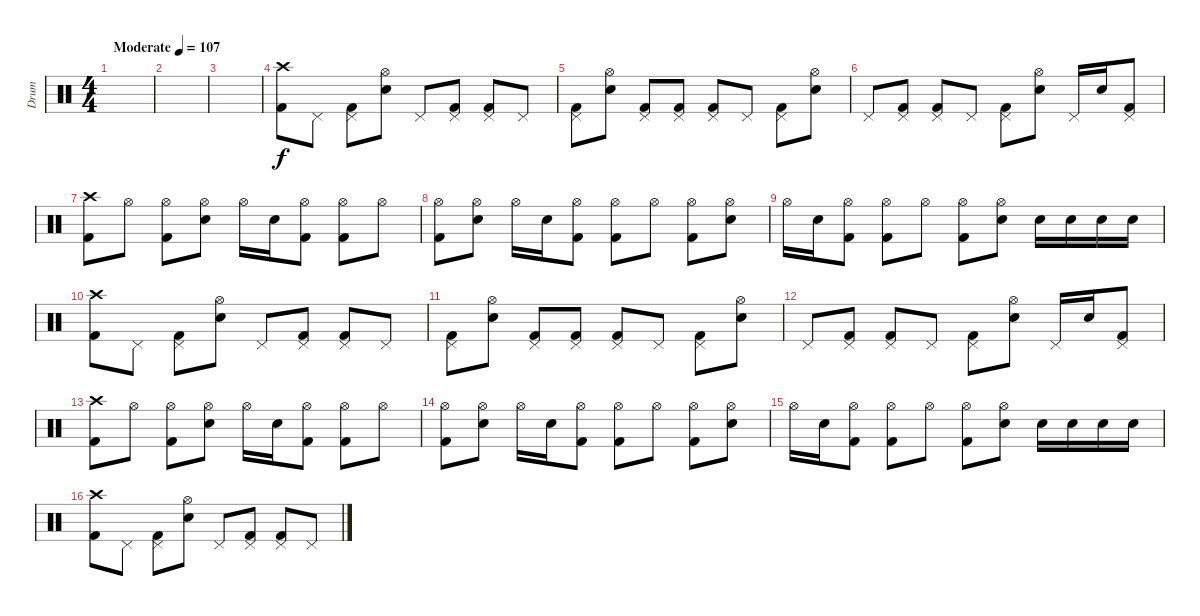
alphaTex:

\track ("Drum" "Drum") {instrument percussion}
\staff {score}
\articulation defaults
\ts (4 4)
\tempo (107 "Moderate")
\clef neutral
\ks c
|
|
|
("Crash high (hit)" "Kick (hit) 2").8 "Pedal Hi-Hat (hit)".8 ("Pedal Hi-Hat (hit)" "Kick (hit) 2").8 ("Hi-Hat (open)" "Electric Snare (hit)").8 "Pedal Hi-Hat (hit)".8 ("Pedal Hi-Hat (hit)" "Kick (hit) 2").8 ("Pedal Hi-Hat (hit)" "Kick (hit) 2").8 "Pedal Hi-Hat (hit)".8 |
("Pedal Hi-Hat (hit)" "Kick (hit) 2").8 ("Hi-Hat (open)" "Electric Snare (hit)").8 ("Pedal Hi-Hat (hit)" "Kick (hit) 2").8 ("Pedal Hi-Hat (hit)" "Kick (hit) 2").8 ("Pedal Hi-Hat (hit)" "Kick (hit) 2").8 "Pedal Hi-Hat (hit)".8 ("Pedal Hi-Hat (hit)" "Kick (hit) 2").8 ("Hi-Hat (open)" "Electric Snare (hit)").8 |
"Pedal Hi-Hat (hit)".8 ("Pedal Hi-Hat (hit)" "Kick (hit) 2").8 ("Pedal Hi-Hat (hit)" "Kick (hit) 2").8 "Pedal Hi-Hat (hit)".8 ("Pedal Hi-Hat (hit)" "Kick (hit) 2").8 ("Hi-Hat (open)" "Electric Snare (hit)").8 "Pedal Hi-Hat (hit)".16 "Electric Snare (hit)".16 ("Pedal Hi-Hat (hit)" "Kick (hit) 2").8 |
("Crash high (hit)" "Kick (hit) 2").8 "Hi-Hat (open)".8 ("Hi-Hat (open)" "Kick (hit) 2").8 ("Hi-Hat (open)" "Electric Snare (hit)").8 "Hi-Hat (open)".16 "Electric Snare (hit)".16 ("Hi-Hat (open)" "Kick (hit) 2").8 ("Hi-Hat (open)" "Kick (hit) 2").8 "Hi-Hat (open)".8 |
("Hi-Hat (open)" "Kick (hit) 2").8 ("Hi-Hat (open)" "Electric Snare (hit)").8 "Hi-Hat (open)".16 "Electric Snare (hit)".16 ("Hi-Hat (open)" "Kick (hit) 2").8 ("Hi-Hat (open)" "Kick (hit) 2").8 "Hi-Hat (open)".8 ("Hi-Hat (open)" "Kick (hit) 2").8 ("Hi-Hat (open)" "Electric Snare (hit)").8 |
"Hi-Hat (open)".16 "Electric Snare (hit)".16 ("Hi-Hat (open)" "Kick (hit) 2").8 ("Hi-Hat (open)" "Kick (hit) 2").8 "Hi-Hat (open)".8 ("Hi-Hat (open)" "Kick (hit) 2").8 ("Hi-Hat (open)" "Electric Snare (hit)").8 "Electric Snare (hit)".16 "Electric Snare (hit)".16 "Electric Snare (hit)".16 "Electric Snare (hit)".16 |
("Crash high (hit)" "Kick (hit) 2").8 "Pedal Hi-Hat (hit)".8 ("Pedal Hi-Hat (hit)" "Kick (hit) 2").8 ("Hi-Hat (open)" "Electric Snare (hit)").8 "Pedal Hi-Hat (hit)".8 ("Pedal Hi-Hat (hit)" "Kick (hit) 2").8 ("Pedal Hi-Hat (hit)" "Kick (hit) 2").8 "Pedal Hi-Hat (hit)".8 |
("Pedal Hi-Hat (hit)" "Kick (hit) 2").8 ("Hi-Hat (open)" "Electric Snare (hit)").8 ("Pedal Hi-Hat (hit)" "Kick (hit) 2").8 ("Pedal Hi-Hat (hit)" "Kick (hit) 2").8 ("Pedal Hi-Hat (hit)" "Kick (hit) 2").8 "Pedal Hi-Hat (hit)".8 ("Pedal Hi-Hat (hit)" "Kick (hit) 2").8 ("Hi-Hat (open)" "Electric Snare (hit)").8 |
"Pedal Hi-Hat (hit)".8 ("Pedal Hi-Hat (hit)" "Kick (hit) 2").8 ("Pedal Hi-Hat (hit)" "Kick (hit) 2").8 "Pedal Hi-Hat (hit)".8 ("Pedal Hi-Hat (hit)" "Kick (hit) 2").8 ("Hi-Hat (open)" "Electric Snare (hit)").8 "Pedal Hi-Hat (hit)".16 "Electric Snare (hit)".16 ("Pedal Hi-Hat (hit)" "Kick (hit) 2").8 |
("Crash high (hit)" "Kick (hit) 2").8 "Hi-Hat (open)".8 ("Hi-Hat (open)" "Kick (hit) 2").8 ("Hi-Hat (open)" "Electric Snare (hit)").8 "Hi-Hat (open)".16 "Electric Snare (hit)".16 ("Hi-Hat (open)" "Kick (hit) 2").8 ("Hi-Hat (open)" "Kick (hit) 2").8 "Hi-Hat (open)".8 |
("Hi-Hat (open)" "Kick (hit) 2").8 ("Hi-Hat (open)" "Electric Snare (hit)").8 "Hi-Hat (open)".16 "Electric Snare (hit)".16 ("Hi-Hat (open)" "Kick (hit) 2").8 ("Hi-Hat (open)" "Kick (hit) 2").8 "Hi-Hat (open)".8 ("Hi-Hat (open)" "Kick (hit) 2").8 ("Hi-Hat (open)" "Electric Snare (hit)").8 |
"Hi-Hat (open)".16 "Electric Snare (hit)".16 ("Hi-Hat (open)" "Kick (hit) 2").8 ("Hi-Hat (open)" "Kick (hit) 2").8 "Hi-Hat (open)".8 ("Hi-Hat (open)" "Kick (hit) 2").8 ("Hi-Hat (open)" "Electric Snare (hit)").8 "Electric Snare (hit)".16 "Electric Snare (hit)".16 "Electric Snare (hit)".16 "Electric Snare (hit)".16 |
("Crash high (hit)" "Kick (hit) 2").8 "Pedal Hi-Hat (hit)".8 ("Pedal Hi-Hat (hit)" "Kick (hit) 2").8 ("Hi-Hat (open)" "Electric Snare (hit)").8 "Pedal Hi-Hat (hit)".8 ("Pedal Hi-Hat (hit)" "Kick (hit) 2").8 ("Pedal Hi-Hat (hit)" "Kick (hit) 2").8 "Pedal Hi-Hat (hit)".8
